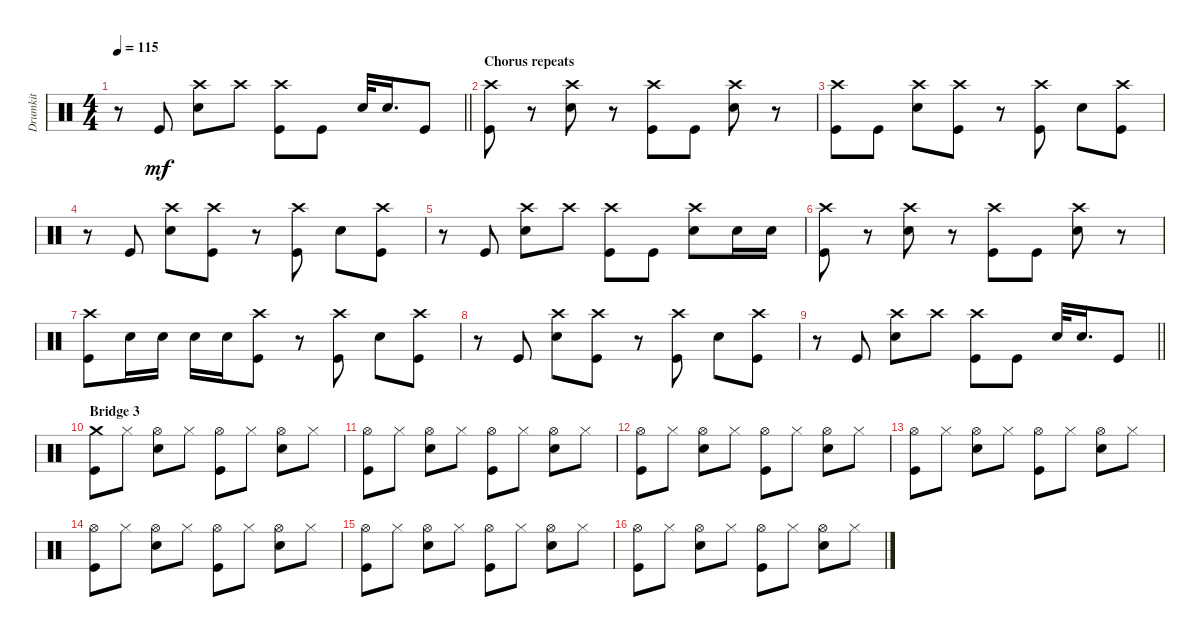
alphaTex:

\track ("Drumkit" "Drumkit") {instrument percussion}
\staff {score}
\articulation defaults
\ts (4 4)
\tempo 115
\clef neutral
\barLineRight lightlight
\ks c
r.8{dy mf} "Kick (hit)".8 ("Snare (hit) 2" "Crash high (hit)").8 "Crash high (hit)".8 ("Kick (hit)" "Crash high (hit)").8 "Kick (hit)".8 "Snare (hit) 2".32 "Snare (hit) 2".16{d} "Kick (hit)".8 |
\section ("" "Chorus repeats")
("Kick (hit)" "Crash high (hit)").8 r.8 ("Snare (hit) 2" "Crash high (hit)").8 r.8 ("Kick (hit)" "Crash high (hit)").8 "Kick (hit)".8 ("Snare (hit) 2" "Crash high (hit)").8 r.8 |
("Kick (hit)" "Crash high (hit)").8 "Kick (hit)".8 ("Snare (hit) 2" "Crash high (hit)").8 ("Kick (hit)" "Crash high (hit)").8 r.8 ("Kick (hit)" "Crash high (hit)").8 "Snare (hit) 2".8 ("Kick (hit)" "Crash high (hit)").8 |
r.8 "Kick (hit)".8 ("Snare (hit) 2" "Crash high (hit)").8 ("Kick (hit)" "Crash high (hit)").8 r.8 ("Kick (hit)" "Crash high (hit)").8 "Snare (hit) 2".8 ("Kick (hit)" "Crash high (hit)").8 |
r.8 "Kick (hit)".8 ("Snare (hit) 2" "Crash high (hit)").8 "Crash high (hit)".8 ("Kick (hit)" "Crash high (hit)").8 "Kick (hit)".8 ("Snare (hit) 2" "Crash high (hit)").8 "Snare (hit) 2".16 "Snare (hit) 2".16 |
("Kick (hit)" "Crash high (hit)").8 r.8 ("Snare (hit) 2" "Crash high (hit)").8 r.8 ("Kick (hit)" "Crash high (hit)").8 "Kick (hit)".8 ("Snare (hit) 2" "Crash high (hit)").8 r.8 |
("Kick (hit)" "Crash high (hit)").8 "Snare (hit) 2".16 "Snare (hit) 2".16 "Snare (hit) 2".16 "Snare (hit) 2".16 ("Kick (hit)" "Crash high (hit)").8 r.8 ("Kick (hit)" "Crash high (hit)").8 "Snare (hit) 2".8 ("Kick (hit)" "Crash high (hit)").8 |
r.8 "Kick (hit)".8 ("Snare (hit) 2" "Crash high (hit)").8 ("Kick (hit)" "Crash high (hit)").8 r.8 ("Kick (hit)" "Crash high (hit)").8 "Snare (hit) 2".8 ("Kick (hit)" "Crash high (hit)").8 |
\barLineRight lightlight
r.8 "Kick (hit)".8 ("Snare (hit) 2" "Crash high (hit)").8 "Crash high (hit)".8 ("Kick (hit)" "Crash high (hit)").8 "Kick (hit)".8 "Snare (hit) 2".32 "Snare (hit) 2".16{d} "Kick (hit)".8 |
\section ("" "Bridge 3")
("Kick (hit)" "Crash medium (hit)").8 "Hi-Hat (closed)".8 ("Hi-Hat (open)" "Snare (hit) 2").8 "Hi-Hat (closed)".8 ("Hi-Hat (open)" "Kick (hit)").8 "Hi-Hat (closed)".8 ("Hi-Hat (open)" "Snare (hit) 2").8 "Hi-Hat (closed)".8 |
("Hi-Hat (open)" "Kick (hit)").8 "Hi-Hat (closed)".8 ("Hi-Hat (open)" "Snare (hit) 2").8 "Hi-Hat (closed)".8 ("Hi-Hat (open)" "Kick (hit)").8 "Hi-Hat (closed)".8 ("Hi-Hat (open)" "Snare (hit) 2").8 "Hi-Hat (closed)".8 |
("Hi-Hat (open)" "Kick (hit)").8 "Hi-Hat (closed)".8 ("Hi-Hat (open)" "Snare (hit) 2").8 "Hi-Hat (closed)".8 ("Hi-Hat (open)" "Kick (hit)").8 "Hi-Hat (closed)".8 ("Hi-Hat (open)" "Snare (hit) 2").8 "Hi-Hat (closed)".8 |
("Hi-Hat (open)" "Kick (hit)").8 "Hi-Hat (closed)".8 ("Hi-Hat (open)" "Snare (hit) 2").8 "Hi-Hat (closed)".8 ("Hi-Hat (open)" "Kick (hit)").8 "Hi-Hat (closed)".8 ("Hi-Hat (open)" "Snare (hit) 2").8 "Hi-Hat (closed)".8 |
("Hi-Hat (open)" "Kick (hit)").8 "Hi-Hat (closed)".8 ("Hi-Hat (open)" "Snare (hit) 2").8 "Hi-Hat (closed)".8 ("Hi-Hat (open)" "Kick (hit)").8 "Hi-Hat (closed)".8 ("Hi-Hat (open)" "Snare (hit) 2").8 "Hi-Hat (closed)".8 |
("Hi-Hat (open)" "Kick (hit)").8 "Hi-Hat (closed)".8 ("Hi-Hat (open)" "Snare (hit) 2").8 "Hi-Hat (closed)".8 ("Hi-Hat (open)" "Kick (hit)").8 "Hi-Hat (closed)".8 ("Hi-Hat (open)" "Snare (hit) 2").8 "Hi-Hat (closed)".8 |
("Hi-Hat (open)" "Kick (hit)").8 "Hi-Hat (closed)".8 ("Hi-Hat (open)" "Snare (hit) 2").8 "Hi-Hat (closed)".8 ("Hi-Hat (open)" "Kick (hit)").8 "Hi-Hat (closed)".8 ("Hi-Hat (open)" "Snare (hit) 2").8 "Hi-Hat (closed)".8
